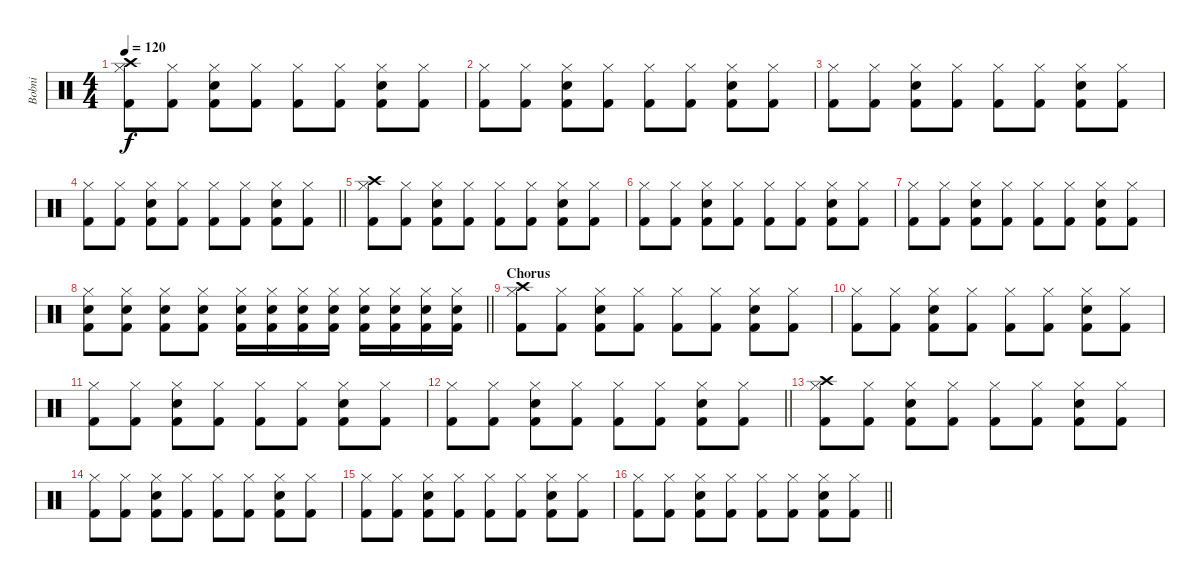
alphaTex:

\track ("Bobni" "Bobni") {instrument percussion}
\staff {score}
\articulation defaults
\ts (4 4)
\tempo 120
\clef neutral
\ks c
("Crash high (hit)" "Hi-Hat (closed)" "Kick (hit) 2").8{dy f} ("Hi-Hat (closed)" "Kick (hit) 2").8 ("Hi-Hat (closed)" "Electric Snare (hit)" "Kick (hit) 2").8 ("Hi-Hat (closed)" "Kick (hit) 2").8 ("Hi-Hat (closed)" "Kick (hit) 2").8 ("Hi-Hat (closed)" "Kick (hit) 2").8 ("Hi-Hat (closed)" "Electric Snare (hit)" "Kick (hit) 2").8 ("Hi-Hat (closed)" "Kick (hit) 2").8 |
("Hi-Hat (closed)" "Kick (hit) 2").8 ("Hi-Hat (closed)" "Kick (hit) 2").8 ("Hi-Hat (closed)" "Electric Snare (hit)" "Kick (hit) 2").8 ("Hi-Hat (closed)" "Kick (hit) 2").8 ("Hi-Hat (closed)" "Kick (hit) 2").8 ("Hi-Hat (closed)" "Kick (hit) 2").8 ("Hi-Hat (closed)" "Electric Snare (hit)" "Kick (hit) 2").8 ("Hi-Hat (closed)" "Kick (hit) 2").8 |
("Hi-Hat (closed)" "Kick (hit) 2").8 ("Hi-Hat (closed)" "Kick (hit) 2").8 ("Hi-Hat (closed)" "Electric Snare (hit)" "Kick (hit) 2").8 ("Hi-Hat (closed)" "Kick (hit) 2").8 ("Hi-Hat (closed)" "Kick (hit) 2").8 ("Hi-Hat (closed)" "Kick (hit) 2").8 ("Hi-Hat (closed)" "Electric Snare (hit)" "Kick (hit) 2").8 ("Hi-Hat (closed)" "Kick (hit) 2").8 |
\barLineRight lightlight
("Hi-Hat (closed)" "Kick (hit) 2").8 ("Hi-Hat (closed)" "Kick (hit) 2").8 ("Hi-Hat (closed)" "Electric Snare (hit)" "Kick (hit) 2").8 ("Hi-Hat (closed)" "Kick (hit) 2").8 ("Hi-Hat (closed)" "Kick (hit) 2").8 ("Hi-Hat (closed)" "Kick (hit) 2").8 ("Hi-Hat (closed)" "Electric Snare (hit)" "Kick (hit) 2").8 ("Hi-Hat (closed)" "Kick (hit) 2").8 |
("Crash high (hit)" "Hi-Hat (closed)" "Kick (hit) 2").8 ("Hi-Hat (closed)" "Kick (hit) 2").8 ("Hi-Hat (closed)" "Electric Snare (hit)" "Kick (hit) 2").8 ("Hi-Hat (closed)" "Kick (hit) 2").8 ("Hi-Hat (closed)" "Kick (hit) 2").8 ("Hi-Hat (closed)" "Kick (hit) 2").8 ("Hi-Hat (closed)" "Electric Snare (hit)" "Kick (hit) 2").8 ("Hi-Hat (closed)" "Kick (hit) 2").8 |
("Hi-Hat (closed)" "Kick (hit) 2").8 ("Hi-Hat (closed)" "Kick (hit) 2").8 ("Hi-Hat (closed)" "Electric Snare (hit)" "Kick (hit) 2").8 ("Hi-Hat (closed)" "Kick (hit) 2").8 ("Hi-Hat (closed)" "Kick (hit) 2").8 ("Hi-Hat (closed)" "Kick (hit) 2").8 ("Hi-Hat (closed)" "Electric Snare (hit)" "Kick (hit) 2").8 ("Hi-Hat (closed)" "Kick (hit) 2").8 |
("Hi-Hat (closed)" "Kick (hit) 2").8 ("Hi-Hat (closed)" "Kick (hit) 2").8 ("Hi-Hat (closed)" "Electric Snare (hit)" "Kick (hit) 2").8 ("Hi-Hat (closed)" "Kick (hit) 2").8 ("Hi-Hat (closed)" "Kick (hit) 2").8 ("Hi-Hat (closed)" "Kick (hit) 2").8 ("Hi-Hat (closed)" "Electric Snare (hit)" "Kick (hit) 2").8 ("Hi-Hat (closed)" "Kick (hit) 2").8 |
\barLineRight lightlight
("Hi-Hat (closed)" "Electric Snare (hit)" "Kick (hit) 2").8 ("Hi-Hat (closed)" "Electric Snare (hit)" "Kick (hit) 2").8 ("Hi-Hat (closed)" "Electric Snare (hit)" "Kick (hit) 2").8 ("Hi-Hat (closed)" "Electric Snare (hit)" "Kick (hit) 2").8 ("Hi-Hat (closed)" "Electric Snare (hit)" "Kick (hit) 2").16 ("Hi-Hat (closed)" "Electric Snare (hit)" "Kick (hit) 2").16 ("Hi-Hat (closed)" "Electric Snare (hit)" "Kick (hit) 2").16 ("Hi-Hat (closed)" "Electric Snare (hit)" "Kick (hit) 2").16 ("Hi-Hat (closed)" "Electric Snare (hit)" "Kick (hit) 2").16 ("Hi-Hat (closed)" "Electric Snare (hit)" "Kick (hit) 2").16 ("Hi-Hat (closed)" "Electric Snare (hit)" "Kick (hit) 2").16 ("Hi-Hat (closed)" "Electric Snare (hit)" "Kick (hit) 2").16 |
\section ("" "Chorus")
("Crash high (hit)" "Hi-Hat (closed)" "Kick (hit) 2").8 ("Hi-Hat (closed)" "Kick (hit) 2").8 ("Hi-Hat (closed)" "Electric Snare (hit)" "Kick (hit) 2").8 ("Hi-Hat (closed)" "Kick (hit) 2").8 ("Hi-Hat (closed)" "Kick (hit) 2").8 ("Hi-Hat (closed)" "Kick (hit) 2").8 ("Hi-Hat (closed)" "Electric Snare (hit)" "Kick (hit) 2").8 ("Hi-Hat (closed)" "Kick (hit) 2").8 |
("Hi-Hat (closed)" "Kick (hit) 2").8 ("Hi-Hat (closed)" "Kick (hit) 2").8 ("Hi-Hat (closed)" "Electric Snare (hit)" "Kick (hit) 2").8 ("Hi-Hat (closed)" "Kick (hit) 2").8 ("Hi-Hat (closed)" "Kick (hit) 2").8 ("Hi-Hat (closed)" "Kick (hit) 2").8 ("Hi-Hat (closed)" "Electric Snare (hit)" "Kick (hit) 2").8 ("Hi-Hat (closed)" "Kick (hit) 2").8 |
("Hi-Hat (closed)" "Kick (hit) 2").8 ("Hi-Hat (closed)" "Kick (hit) 2").8 ("Hi-Hat (closed)" "Electric Snare (hit)" "Kick (hit) 2").8 ("Hi-Hat (closed)" "Kick (hit) 2").8 ("Hi-Hat (closed)" "Kick (hit) 2").8 ("Hi-Hat (closed)" "Kick (hit) 2").8 ("Hi-Hat (closed)" "Electric Snare (hit)" "Kick (hit) 2").8 ("Hi-Hat (closed)" "Kick (hit) 2").8 |
\barLineRight lightlight
("Hi-Hat (closed)" "Kick (hit) 2").8 ("Hi-Hat (closed)" "Kick (hit) 2").8 ("Hi-Hat (closed)" "Electric Snare (hit)" "Kick (hit) 2").8 ("Hi-Hat (closed)" "Kick (hit) 2").8 ("Hi-Hat (closed)" "Kick (hit) 2").8 ("Hi-Hat (closed)" "Kick (hit) 2").8 ("Hi-Hat (closed)" "Electric Snare (hit)" "Kick (hit) 2").8 ("Hi-Hat (closed)" "Kick (hit) 2").8 |
("Crash high (hit)" "Hi-Hat (closed)" "Kick (hit) 2").8 ("Hi-Hat (closed)" "Kick (hit) 2").8 ("Hi-Hat (closed)" "Electric Snare (hit)" "Kick (hit) 2").8 ("Hi-Hat (closed)" "Kick (hit) 2").8 ("Hi-Hat (closed)" "Kick (hit) 2").8 ("Hi-Hat (closed)" "Kick (hit) 2").8 ("Hi-Hat (closed)" "Electric Snare (hit)" "Kick (hit) 2").8 ("Hi-Hat (closed)" "Kick (hit) 2").8 |
("Hi-Hat (closed)" "Kick (hit) 2").8 ("Hi-Hat (closed)" "Kick (hit) 2").8 ("Hi-Hat (closed)" "Electric Snare (hit)" "Kick (hit) 2").8 ("Hi-Hat (closed)" "Kick (hit) 2").8 ("Hi-Hat (closed)" "Kick (hit) 2").8 ("Hi-Hat (closed)" "Kick (hit) 2").8 ("Hi-Hat (closed)" "Electric Snare (hit)" "Kick (hit) 2").8 ("Hi-Hat (closed)" "Kick (hit) 2").8 |
("Hi-Hat (closed)" "Kick (hit) 2").8 ("Hi-Hat (closed)" "Kick (hit) 2").8 ("Hi-Hat (closed)" "Electric Snare (hit)" "Kick (hit) 2").8 ("Hi-Hat (closed)" "Kick (hit) 2").8 ("Hi-Hat (closed)" "Kick (hit) 2").8 ("Hi-Hat (closed)" "Kick (hit) 2").8 ("Hi-Hat (closed)" "Electric Snare (hit)" "Kick (hit) 2").8 ("Hi-Hat (closed)" "Kick (hit) 2").8 |
\barLineRight lightlight
("Hi-Hat (closed)" "Kick (hit) 2").8 ("Hi-Hat (closed)" "Kick (hit) 2").8 ("Hi-Hat (closed)" "Electric Snare (hit)" "Kick (hit) 2").8 ("Hi-Hat (closed)" "Kick (hit) 2").8 ("Hi-Hat (closed)" "Kick (hit) 2").8 ("Hi-Hat (closed)" "Kick (hit) 2").8 ("Hi-Hat (closed)" "Electric Snare (hit)" "Kick (hit) 2").8 ("Hi-Hat (closed)" "Kick (hit) 2").8
